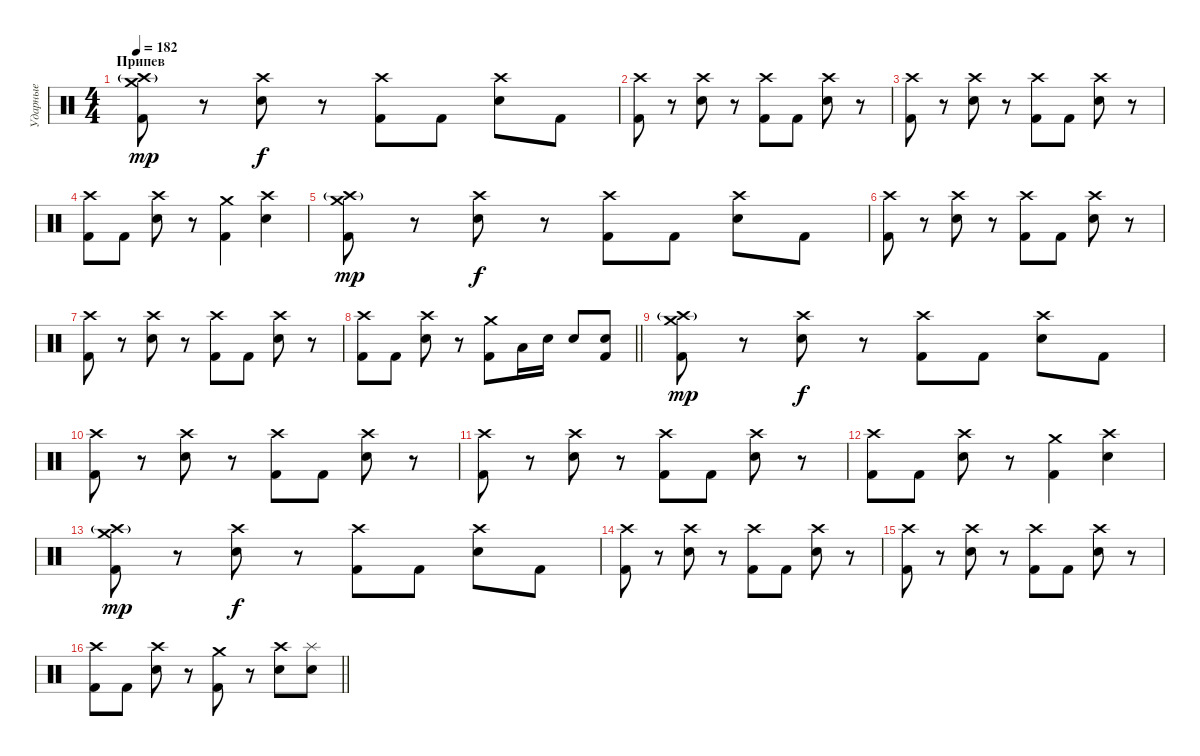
\track ("Ударные" "Ударные") {instrument percussion}
\staff {score}
\articulation defaults
\ts (4 4)
\section ("" "Припев")
\tempo 182
\clef neutral
\ks c
("Crash medium (hit)" "Crash high (hit)"{g} "Kick (hit) 2").8{dy mp} r.8 ("Crash high (hit)" "Snare (hit) 2").8{dy f} r.8 ("Crash high (hit)" "Kick (hit) 2").8 "Kick (hit) 2".8 ("Crash high (hit)" "Snare (hit) 2").8 "Kick (hit) 2".8 |
("Crash high (hit)" "Kick (hit) 2").8 r.8 ("Crash high (hit)" "Snare (hit) 2").8 r.8 ("Crash high (hit)" "Kick (hit) 2").8 "Kick (hit) 2".8 ("Crash high (hit)" "Snare (hit) 2").8 r.8 |
("Crash high (hit)" "Kick (hit) 2").8 r.8 ("Crash high (hit)" "Snare (hit) 2").8 r.8 ("Crash high (hit)" "Kick (hit) 2").8 "Kick (hit) 2".8 ("Crash high (hit)" "Snare (hit) 2").8 r.8 |
("Crash high (hit)" "Kick (hit) 2").8 "Kick (hit) 2".8 ("Crash high (hit)" "Snare (hit) 2").8 r.8 ("Crash medium (hit)" "Kick (hit) 2").4 ("Crash high (hit)" "Snare (hit) 2").4 |
("Crash medium (hit)" "Crash high (hit)"{g} "Kick (hit) 2").8{dy mp} r.8 ("Crash high (hit)" "Snare (hit) 2").8{dy f} r.8 ("Crash high (hit)" "Kick (hit) 2").8 "Kick (hit) 2".8 ("Crash high (hit)" "Snare (hit) 2").8 "Kick (hit) 2".8 |
("Crash high (hit)" "Kick (hit) 2").8 r.8 ("Crash high (hit)" "Snare (hit) 2").8 r.8 ("Crash high (hit)" "Kick (hit) 2").8 "Kick (hit) 2".8 ("Crash high (hit)" "Snare (hit) 2").8 r.8 |
("Crash high (hit)" "Kick (hit) 2").8 r.8 ("Crash high (hit)" "Snare (hit) 2").8 r.8 ("Crash high (hit)" "Kick (hit) 2").8 "Kick (hit) 2".8 ("Crash high (hit)" "Snare (hit) 2").8 r.8 |
\barLineRight lightlight
("Crash high (hit)" "Kick (hit) 2").8 "Kick (hit) 2".8 ("Crash high (hit)" "Snare (hit) 2").8 r.8 ("Crash medium (hit)" "Kick (hit) 2").8 "Low Tom (hit)".16 "Snare (hit) 2".16 "Snare (hit) 2".8 ("Snare (hit) 2" "Kick (hit) 2").8 |
("Crash medium (hit)" "Crash high (hit)"{g} "Kick (hit) 2").8{dy mp} r.8 ("Crash high (hit)" "Snare (hit) 2").8{dy f} r.8 ("Crash high (hit)" "Kick (hit) 2").8 "Kick (hit) 2".8 ("Crash high (hit)" "Snare (hit) 2").8 "Kick (hit) 2".8 |
("Crash high (hit)" "Kick (hit) 2").8 r.8 ("Crash high (hit)" "Snare (hit) 2").8 r.8 ("Crash high (hit)" "Kick (hit) 2").8 "Kick (hit) 2".8 ("Crash high (hit)" "Snare (hit) 2").8 r.8 |
("Crash high (hit)" "Kick (hit) 2").8 r.8 ("Crash high (hit)" "Snare (hit) 2").8 r.8 ("Crash high (hit)" "Kick (hit) 2").8 "Kick (hit) 2".8 ("Crash high (hit)" "Snare (hit) 2").8 r.8 |
("Crash high (hit)" "Kick (hit) 2").8 "Kick (hit) 2".8 ("Crash high (hit)" "Snare (hit) 2").8 r.8 ("Crash medium (hit)" "Kick (hit) 2").4 ("Crash high (hit)" "Snare (hit) 2").4 |
("Crash medium (hit)" "Crash high (hit)"{g} "Kick (hit) 2").8{dy mp} r.8 ("Crash high (hit)" "Snare (hit) 2").8{dy f} r.8 ("Crash high (hit)" "Kick (hit) 2").8 "Kick (hit) 2".8 ("Crash high (hit)" "Snare (hit) 2").8 "Kick (hit) 2".8 |
("Crash high (hit)" "Kick (hit) 2").8 r.8 ("Crash high (hit)" "Snare (hit) 2").8 r.8 ("Crash high (hit)" "Kick (hit) 2").8 "Kick (hit) 2".8 ("Crash high (hit)" "Snare (hit) 2").8 r.8 |
("Crash high (hit)" "Kick (hit) 2").8 r.8 ("Crash high (hit)" "Snare (hit) 2").8 r.8 ("Crash high (hit)" "Kick (hit) 2").8 "Kick (hit) 2".8 ("Crash high (hit)" "Snare (hit) 2").8 r.8 |
\barLineRight lightlight
("Crash high (hit)" "Kick (hit) 2").8 "Kick (hit) 2".8 ("Crash high (hit)" "Snare (hit) 2").8 r.8 ("Crash medium (hit)" "Kick (hit) 2").8 r.8 ("Crash high (hit)" "Snare (hit) 2").8 ("Splash (hit)" "Snare (hit) 2").8
